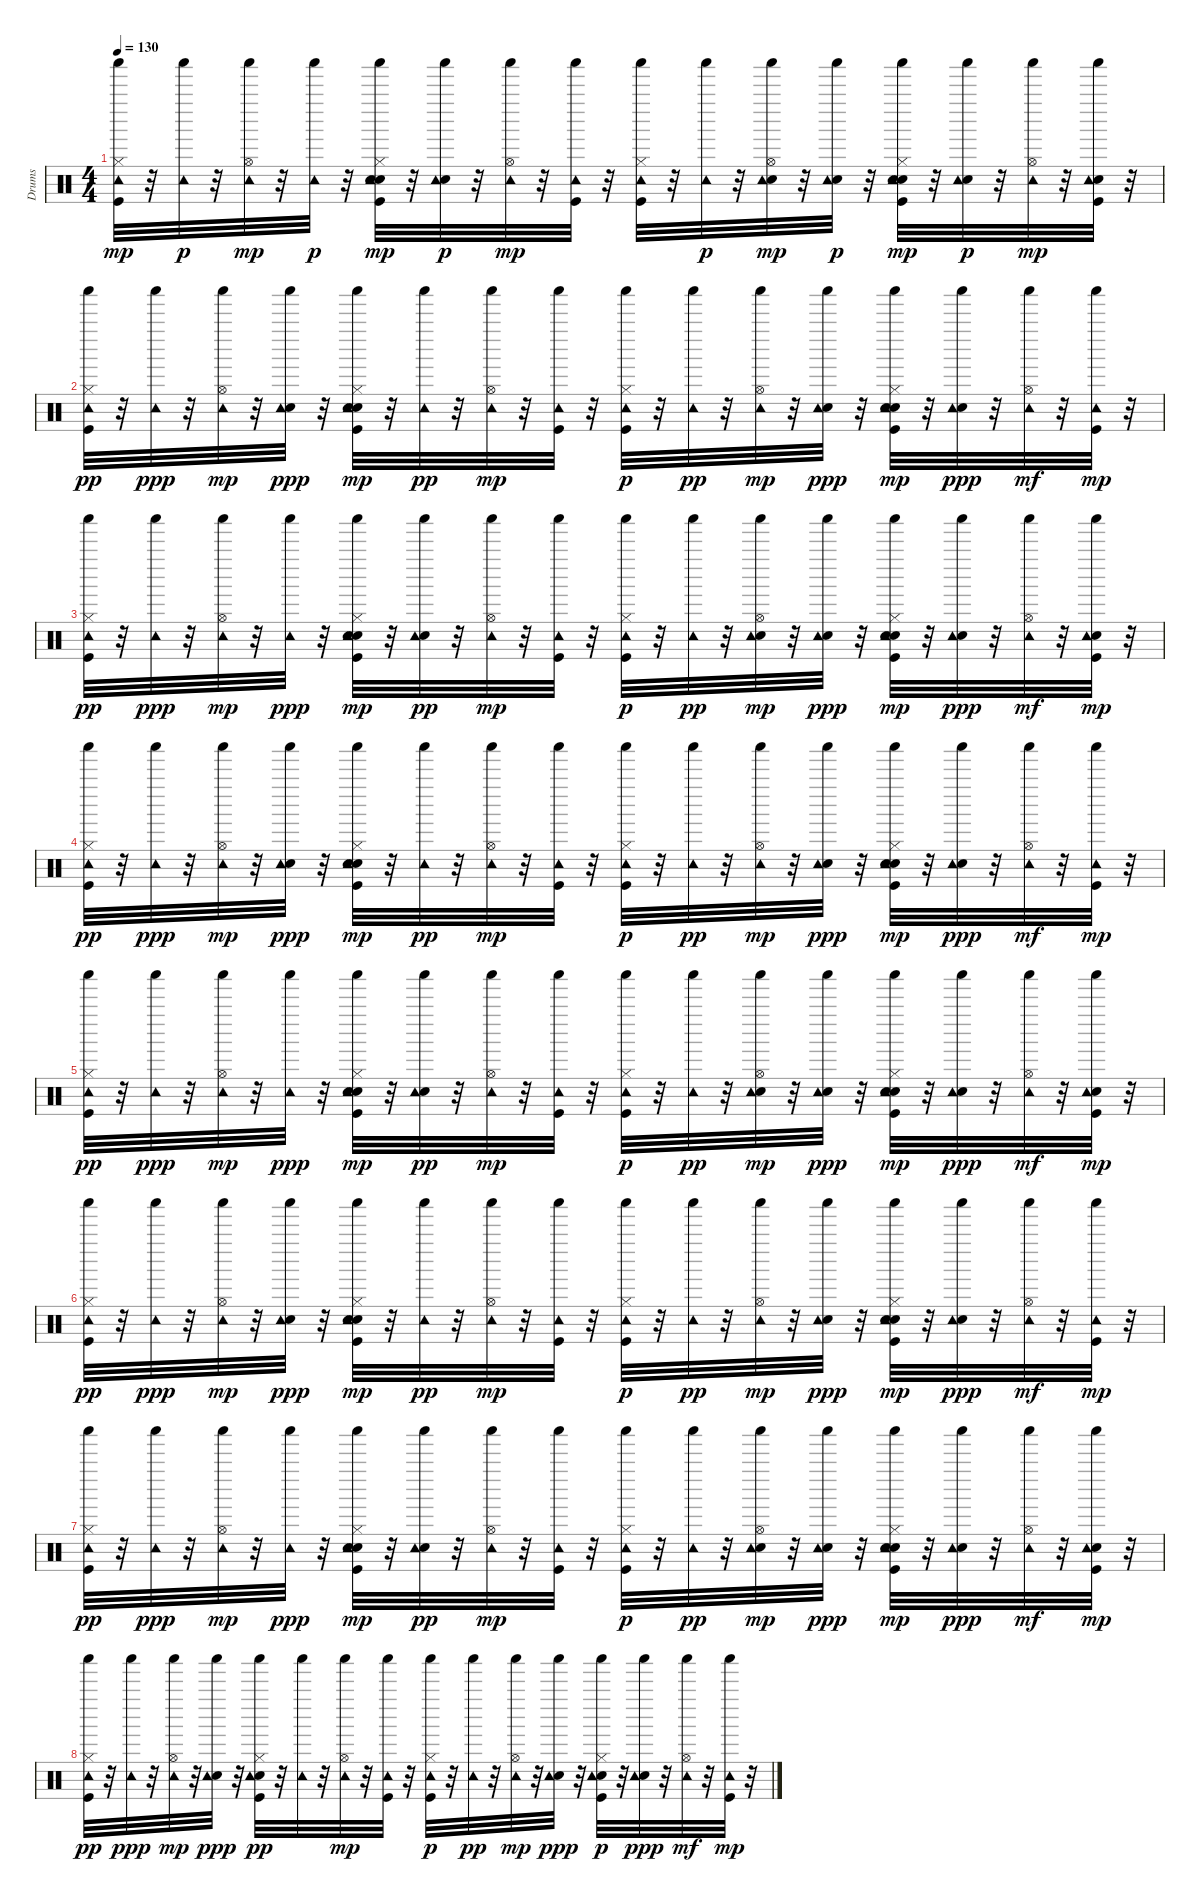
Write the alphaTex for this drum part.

\track ("Drums" "Drums") {instrument percussion}
\staff {score}
\articulation defaults
\ts (4 4)
\tempo 130
\clef neutral
\ks c
("Kick (hit)" "Hi-Hat (closed)" "Tambourine (hit)" "Shaker (hit)").32{dy mp} r.32 ("Tambourine (hit)" "Shaker (hit)").32{dy p} r.32 ("Tambourine (hit)" "Hi-Hat (open)" "Shaker (hit)").32{dy mp} r.32 ("Tambourine (hit)" "Shaker (hit)").32{dy p} r.32 ("Kick (hit)" "Hi-Hat (closed)" "Hand Clap (hit)" "Tambourine (hit)" "Shaker (hit)" "Snare (hit) 2").32{dy mp} r.32 ("Electric Snare (hit)" "Tambourine (hit)" "Shaker (hit)").32{dy p} r.32 ("Tambourine (hit)" "Hi-Hat (open)" "Shaker (hit)").32{dy mp} r.32 ("Tambourine (hit)" "Shaker (hit)" "Kick (hit)").32 r.32 ("Kick (hit)" "Hi-Hat (closed)" "Tambourine (hit)" "Shaker (hit)").32 r.32 ("Tambourine (hit)" "Shaker (hit)").32{dy p} r.32 ("Hand Clap (hit)" "Tambourine (hit)" "Hi-Hat (open)" "Shaker (hit)").32{dy mp} r.32 ("Electric Snare (hit)" "Tambourine (hit)" "Shaker (hit)").32{dy p} r.32 ("Kick (hit)" "Hi-Hat (closed)" "Hand Clap (hit)" "Tambourine (hit)" "Shaker (hit)" "Snare (hit) 2").32{dy mp} r.32 ("Electric Snare (hit)" "Tambourine (hit)" "Shaker (hit)").32{dy p} r.32 ("Tambourine (hit)" "Hi-Hat (open)" "Shaker (hit)").32{dy mp} r.32 ("Electric Snare (hit)" "Tambourine (hit)" "Shaker (hit)" "Kick (hit)").32 r.32 |
("Kick (hit)" "Shaker (hit)" "Hi-Hat (closed)" "Tambourine (hit)").32{dy pp} r.32 ("Shaker (hit)" "Tambourine (hit)").32{dy ppp} r.32 ("Shaker (hit)" "Hi-Hat (open)" "Tambourine (hit)").32{dy mp} r.32 ("Shaker (hit)" "Electric Snare (hit)" "Tambourine (hit)").32{dy ppp} r.32 ("Kick (hit)" "Shaker (hit)" "Hi-Hat (closed)" "Hand Clap (hit)" "Tambourine (hit)" "Snare (hit) 2").32{dy mp} r.32 ("Shaker (hit)" "Tambourine (hit)").32{dy pp} r.32 ("Shaker (hit)" "Hi-Hat (open)" "Tambourine (hit)").32{dy mp} r.32 ("Shaker (hit)" "Tambourine (hit)" "Kick (hit)").32 r.32 ("Kick (hit)" "Shaker (hit)" "Hi-Hat (closed)" "Tambourine (hit)").32{dy p} r.32 ("Shaker (hit)" "Tambourine (hit)").32{dy pp} r.32 ("Shaker (hit)" "Hi-Hat (open)" "Tambourine (hit)").32{dy mp} r.32 ("Shaker (hit)" "Electric Snare (hit)" "Tambourine (hit)").32{dy ppp} r.32 ("Kick (hit)" "Shaker (hit)" "Hi-Hat (closed)" "Hand Clap (hit)" "Tambourine (hit)" "Snare (hit) 2").32{dy mp} r.32 ("Shaker (hit)" "Electric Snare (hit)" "Tambourine (hit)").32{dy ppp} r.32 ("Shaker (hit)" "Hi-Hat (open)" "Tambourine (hit)").32{dy mf} r.32 ("Shaker (hit)" "Tambourine (hit)" "Kick (hit)").32{dy mp} r.32 |
("Kick (hit)" "Shaker (hit)" "Hi-Hat (closed)" "Tambourine (hit)").32{dy pp} r.32 ("Shaker (hit)" "Tambourine (hit)").32{dy ppp} r.32 ("Shaker (hit)" "Hi-Hat (open)" "Tambourine (hit)").32{dy mp} r.32 ("Shaker (hit)" "Tambourine (hit)").32{dy ppp} r.32 ("Kick (hit)" "Shaker (hit)" "Hi-Hat (closed)" "Hand Clap (hit)" "Tambourine (hit)" "Snare (hit) 2").32{dy mp} r.32 ("Shaker (hit)" "Electric Snare (hit)" "Tambourine (hit)").32{dy pp} r.32 ("Shaker (hit)" "Hi-Hat (open)" "Tambourine (hit)").32{dy mp} r.32 ("Shaker (hit)" "Tambourine (hit)" "Kick (hit)").32 r.32 ("Kick (hit)" "Shaker (hit)" "Hi-Hat (closed)" "Tambourine (hit)").32{dy p} r.32 ("Shaker (hit)" "Tambourine (hit)").32{dy pp} r.32 ("Shaker (hit)" "Hand Clap (hit)" "Hi-Hat (open)" "Tambourine (hit)").32{dy mp} r.32 ("Shaker (hit)" "Electric Snare (hit)" "Tambourine (hit)").32{dy ppp} r.32 ("Kick (hit)" "Shaker (hit)" "Hi-Hat (closed)" "Hand Clap (hit)" "Tambourine (hit)" "Snare (hit) 2").32{dy mp} r.32 ("Shaker (hit)" "Electric Snare (hit)" "Tambourine (hit)").32{dy ppp} r.32 ("Shaker (hit)" "Hi-Hat (open)" "Tambourine (hit)").32{dy mf} r.32 ("Shaker (hit)" "Electric Snare (hit)" "Tambourine (hit)" "Kick (hit)").32{dy mp} r.32 |
("Kick (hit)" "Hi-Hat (closed)" "Shaker (hit)" "Tambourine (hit)").32{dy pp} r.32 ("Shaker (hit)" "Tambourine (hit)").32{dy ppp} r.32 ("Shaker (hit)" "Hi-Hat (open)" "Tambourine (hit)").32{dy mp} r.32 ("Shaker (hit)" "Electric Snare (hit)" "Tambourine (hit)").32{dy ppp} r.32 ("Kick (hit)" "Hi-Hat (closed)" "Hand Clap (hit)" "Shaker (hit)" "Tambourine (hit)" "Snare (hit) 2").32{dy mp} r.32 ("Shaker (hit)" "Tambourine (hit)").32{dy pp} r.32 ("Shaker (hit)" "Hi-Hat (open)" "Tambourine (hit)").32{dy mp} r.32 ("Shaker (hit)" "Tambourine (hit)" "Kick (hit)").32 r.32 ("Kick (hit)" "Hi-Hat (closed)" "Shaker (hit)" "Tambourine (hit)").32{dy p} r.32 ("Shaker (hit)" "Tambourine (hit)").32{dy pp} r.32 ("Shaker (hit)" "Hi-Hat (open)" "Tambourine (hit)").32{dy mp} r.32 ("Shaker (hit)" "Electric Snare (hit)" "Tambourine (hit)").32{dy ppp} r.32 ("Kick (hit)" "Hi-Hat (closed)" "Hand Clap (hit)" "Shaker (hit)" "Tambourine (hit)" "Snare (hit) 2").32{dy mp} r.32 ("Shaker (hit)" "Electric Snare (hit)" "Tambourine (hit)").32{dy ppp} r.32 ("Shaker (hit)" "Hi-Hat (open)" "Tambourine (hit)").32{dy mf} r.32 ("Shaker (hit)" "Tambourine (hit)" "Kick (hit)").32{dy mp} r.32 |
("Kick (hit)" "Hi-Hat (closed)" "Shaker (hit)" "Tambourine (hit)").32{dy pp} r.32 ("Shaker (hit)" "Tambourine (hit)").32{dy ppp} r.32 ("Shaker (hit)" "Hi-Hat (open)" "Tambourine (hit)").32{dy mp} r.32 ("Shaker (hit)" "Tambourine (hit)").32{dy ppp} r.32 ("Kick (hit)" "Hi-Hat (closed)" "Hand Clap (hit)" "Shaker (hit)" "Tambourine (hit)" "Snare (hit) 2").32{dy mp} r.32 ("Shaker (hit)" "Electric Snare (hit)" "Tambourine (hit)").32{dy pp} r.32 ("Shaker (hit)" "Hi-Hat (open)" "Tambourine (hit)").32{dy mp} r.32 ("Shaker (hit)" "Tambourine (hit)" "Kick (hit)").32 r.32 ("Kick (hit)" "Hi-Hat (closed)" "Shaker (hit)" "Tambourine (hit)").32{dy p} r.32 ("Shaker (hit)" "Tambourine (hit)").32{dy pp} r.32 ("Hand Clap (hit)" "Shaker (hit)" "Hi-Hat (open)" "Tambourine (hit)").32{dy mp} r.32 ("Shaker (hit)" "Electric Snare (hit)" "Tambourine (hit)").32{dy ppp} r.32 ("Kick (hit)" "Hi-Hat (closed)" "Hand Clap (hit)" "Shaker (hit)" "Tambourine (hit)" "Snare (hit) 2").32{dy mp} r.32 ("Shaker (hit)" "Electric Snare (hit)" "Tambourine (hit)").32{dy ppp} r.32 ("Shaker (hit)" "Hi-Hat (open)" "Tambourine (hit)").32{dy mf} r.32 ("Shaker (hit)" "Electric Snare (hit)" "Tambourine (hit)" "Kick (hit)").32{dy mp} r.32 |
("Kick (hit)" "Shaker (hit)" "Hi-Hat (closed)" "Tambourine (hit)").32{dy pp} r.32 ("Shaker (hit)" "Tambourine (hit)").32{dy ppp} r.32 ("Shaker (hit)" "Hi-Hat (open)" "Tambourine (hit)").32{dy mp} r.32 ("Shaker (hit)" "Electric Snare (hit)" "Tambourine (hit)").32{dy ppp} r.32 ("Kick (hit)" "Shaker (hit)" "Hi-Hat (closed)" "Hand Clap (hit)" "Tambourine (hit)" "Snare (hit) 2").32{dy mp} r.32 ("Shaker (hit)" "Tambourine (hit)").32{dy pp} r.32 ("Shaker (hit)" "Hi-Hat (open)" "Tambourine (hit)").32{dy mp} r.32 ("Shaker (hit)" "Tambourine (hit)" "Kick (hit)").32 r.32 ("Kick (hit)" "Shaker (hit)" "Hi-Hat (closed)" "Tambourine (hit)").32{dy p} r.32 ("Shaker (hit)" "Tambourine (hit)").32{dy pp} r.32 ("Shaker (hit)" "Hi-Hat (open)" "Tambourine (hit)").32{dy mp} r.32 ("Shaker (hit)" "Electric Snare (hit)" "Tambourine (hit)").32{dy ppp} r.32 ("Kick (hit)" "Shaker (hit)" "Hi-Hat (closed)" "Hand Clap (hit)" "Tambourine (hit)" "Snare (hit) 2").32{dy mp} r.32 ("Shaker (hit)" "Electric Snare (hit)" "Tambourine (hit)").32{dy ppp} r.32 ("Shaker (hit)" "Hi-Hat (open)" "Tambourine (hit)").32{dy mf} r.32 ("Shaker (hit)" "Tambourine (hit)" "Kick (hit)").32{dy mp} r.32 |
("Kick (hit)" "Shaker (hit)" "Hi-Hat (closed)" "Tambourine (hit)").32{dy pp} r.32 ("Shaker (hit)" "Tambourine (hit)").32{dy ppp} r.32 ("Shaker (hit)" "Hi-Hat (open)" "Tambourine (hit)").32{dy mp} r.32 ("Shaker (hit)" "Tambourine (hit)").32{dy ppp} r.32 ("Kick (hit)" "Shaker (hit)" "Hi-Hat (closed)" "Hand Clap (hit)" "Tambourine (hit)" "Snare (hit) 2").32{dy mp} r.32 ("Shaker (hit)" "Electric Snare (hit)" "Tambourine (hit)").32{dy pp} r.32 ("Shaker (hit)" "Hi-Hat (open)" "Tambourine (hit)").32{dy mp} r.32 ("Shaker (hit)" "Tambourine (hit)" "Kick (hit)").32 r.32 ("Kick (hit)" "Shaker (hit)" "Hi-Hat (closed)" "Tambourine (hit)").32{dy p} r.32 ("Shaker (hit)" "Tambourine (hit)").32{dy pp} r.32 ("Shaker (hit)" "Hand Clap (hit)" "Hi-Hat (open)" "Tambourine (hit)").32{dy mp} r.32 ("Shaker (hit)" "Electric Snare (hit)" "Tambourine (hit)").32{dy ppp} r.32 ("Kick (hit)" "Shaker (hit)" "Hi-Hat (closed)" "Hand Clap (hit)" "Tambourine (hit)" "Snare (hit) 2").32{dy mp} r.32 ("Shaker (hit)" "Electric Snare (hit)" "Tambourine (hit)").32{dy ppp} r.32 ("Shaker (hit)" "Hi-Hat (open)" "Tambourine (hit)").32{dy mf} r.32 ("Shaker (hit)" "Electric Snare (hit)" "Tambourine (hit)" "Kick (hit)").32{dy mp} r.32 |
("Kick (hit)" "Shaker (hit)" "Hi-Hat (closed)" "Tambourine (hit)").32{dy pp} r.32 ("Shaker (hit)" "Tambourine (hit)").32{dy ppp} r.32 ("Shaker (hit)" "Hi-Hat (open)" "Tambourine (hit)").32{dy mp} r.32 ("Shaker (hit)" "Electric Snare (hit)" "Tambourine (hit)").32{dy ppp} r.32 ("Kick (hit)" "Shaker (hit)" "Hi-Hat (closed)" "Hand Clap (hit)" "Tambourine (hit)").32{dy pp} r.32 ("Shaker (hit)" "Tambourine (hit)").32 r.32 ("Shaker (hit)" "Hi-Hat (open)" "Tambourine (hit)").32{dy mp} r.32 ("Shaker (hit)" "Tambourine (hit)" "Kick (hit)").32 r.32 ("Kick (hit)" "Shaker (hit)" "Hi-Hat (closed)" "Tambourine (hit)").32{dy p} r.32 ("Shaker (hit)" "Tambourine (hit)").32{dy pp} r.32 ("Shaker (hit)" "Hi-Hat (open)" "Tambourine (hit)").32{dy mp} r.32 ("Shaker (hit)" "Electric Snare (hit)" "Tambourine (hit)").32{dy ppp} r.32 ("Kick (hit)" "Shaker (hit)" "Hi-Hat (closed)" "Hand Clap (hit)" "Tambourine (hit)").32{dy p} r.32 ("Shaker (hit)" "Electric Snare (hit)" "Tambourine (hit)").32{dy ppp} r.32 ("Shaker (hit)" "Hi-Hat (open)" "Tambourine (hit)").32{dy mf} r.32 ("Shaker (hit)" "Tambourine (hit)" "Kick (hit)").32{dy mp} r.32
